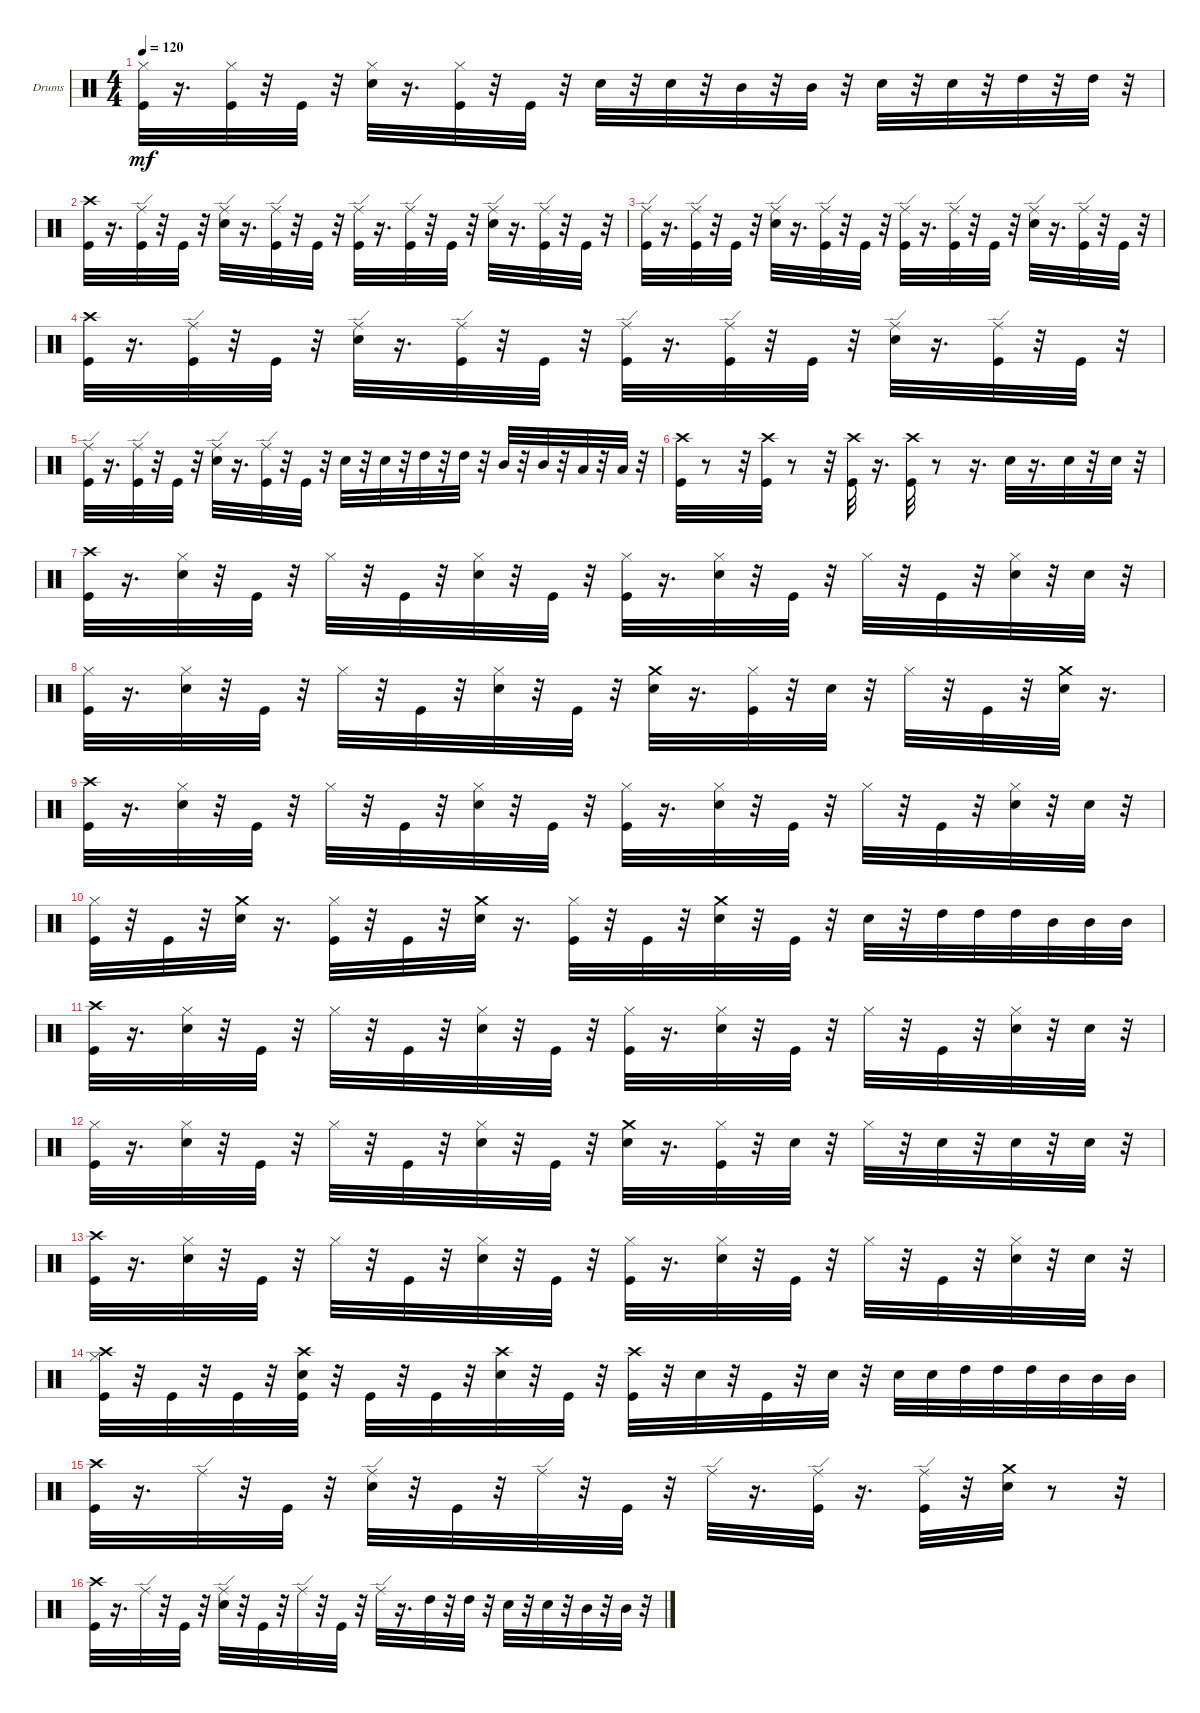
\bracketExtendMode groupsimilarinstruments
\firstSystemTrackNameOrientation horizontal
\otherSystemsTrackNameOrientation horizontal
\track ("" "Drums") {instrument percussion}
\staff {score}
\articulation defaults
\ts (4 4)
\tempo 120
\clef neutral
\ks c
("Hi-Hat (closed)" "Kick (hit)").32{dy mf} r.16{d} ("Hi-Hat (closed)" "Kick (hit)").32 r.32 "Kick (hit)".32 r.32 ("Hi-Hat (closed)" "Snare (hit) 2").32 r.16{d} ("Hi-Hat (closed)" "Kick (hit)").32 r.32 "Kick (hit)".32 r.32 "Snare (hit) 2".32 r.32 "Snare (hit) 2".32 r.32 "Mid Tom (hit)".32 r.32 "Mid Tom (hit)".32 r.32 "Snare (hit) 2".32 r.32 "Snare (hit) 2".32 r.32 "High Tom (hit)".32 r.32 "High Tom (hit)".32 r.32 |
("Crash high (hit)" "Kick (hit)").32 r.16{d} ("Ride (edge)" "Kick (hit)").32 r.32 "Kick (hit)".32 r.32 ("Ride (edge)" "Snare (hit) 2").32 r.16{d} ("Ride (edge)" "Kick (hit)").32 r.32 "Kick (hit)".32 r.32 ("Ride (edge)" "Kick (hit)").32 r.16{d} ("Ride (edge)" "Kick (hit)").32 r.32 "Kick (hit)".32 r.32 ("Ride (edge)" "Snare (hit) 2").32 r.16{d} ("Ride (edge)" "Kick (hit)").32 r.32 "Kick (hit)".32 r.32 |
("Ride (edge)" "Kick (hit)").32 r.16{d} ("Ride (edge)" "Kick (hit)").32 r.32 "Kick (hit)".32 r.32 ("Ride (edge)" "Snare (hit) 2").32 r.16{d} ("Ride (edge)" "Kick (hit)").32 r.32 "Kick (hit)".32 r.32 ("Ride (edge)" "Kick (hit)").32 r.16{d} ("Ride (edge)" "Kick (hit)").32 r.32 "Kick (hit)".32 r.32 ("Ride (edge)" "Snare (hit) 2").32 r.16{d} ("Ride (edge)" "Kick (hit)").32 r.32 "Kick (hit)".32 r.32 |
("Crash high (hit)" "Kick (hit)").32 r.16{d} ("Ride (edge)" "Kick (hit)").32 r.32 "Kick (hit)".32 r.32 ("Ride (edge)" "Snare (hit) 2").32 r.16{d} ("Ride (edge)" "Kick (hit)").32 r.32 "Kick (hit)".32 r.32 ("Ride (edge)" "Kick (hit)").32 r.16{d} ("Ride (edge)" "Kick (hit)").32 r.32 "Kick (hit)".32 r.32 ("Ride (edge)" "Snare (hit) 2").32 r.16{d} ("Ride (edge)" "Kick (hit)").32 r.32 "Kick (hit)".32 r.32 |
("Ride (edge)" "Kick (hit)").32 r.16{d} ("Ride (edge)" "Kick (hit)").32 r.32 "Kick (hit)".32 r.32 ("Ride (edge)" "Snare (hit) 2").32 r.16{d} ("Ride (edge)" "Kick (hit)").32 r.32 "Kick (hit)".32 r.32 "Snare (hit) 2".32 r.32 "Snare (hit) 2".32 r.32 "High Tom (hit)".32 r.32 "High Tom (hit)".32 r.32 "Mid Tom (hit)".32 r.32 "Mid Tom (hit)".32 r.32 "Low Tom (hit)".32 r.32 "Low Tom (hit)".32 r.32 |
("Crash high (hit)" "Kick (hit)").32 r.8 r.32 ("Crash high (hit)" "Kick (hit)").32 r.8 r.32 ("Crash high (hit)" "Kick (hit)").32 r.16{d} ("Crash high (hit)" "Kick (hit)").32 r.8 r.16{d} "Snare (hit) 2".32 r.16{d} "Snare (hit) 2".32 r.32 "Snare (hit) 2".32 r.32 |
("Crash high (hit)" "Kick (hit)").32 r.16{d} ("Snare (hit) 2" "Hi-Hat (closed)").32 r.32 "Kick (hit)".32 r.32 "Hi-Hat (closed)".32 r.32 "Kick (hit)".32 r.32 ("Snare (hit) 2" "Hi-Hat (closed)").32 r.32 "Kick (hit)".32 r.32 ("Kick (hit)" "Hi-Hat (closed)").32 r.16{d} ("Snare (hit) 2" "Hi-Hat (closed)").32 r.32 "Kick (hit)".32 r.32 "Hi-Hat (closed)".32 r.32 "Kick (hit)".32 r.32 ("Snare (hit) 2" "Hi-Hat (closed)").32 r.32 "Snare (hit) 2".32 r.32 |
("Hi-Hat (closed)" "Kick (hit)").32 r.16{d} ("Snare (hit) 2" "Hi-Hat (closed)").32 r.32 "Kick (hit)".32 r.32 "Hi-Hat (closed)".32 r.32 "Kick (hit)".32 r.32 ("Snare (hit) 2" "Hi-Hat (closed)").32 r.32 "Kick (hit)".32 r.32 ("Crash medium (hit)" "Snare (hit) 2").32 r.16{d} ("Kick (hit)" "Hi-Hat (closed)").32 r.32 "Snare (hit) 2".32 r.32 "Hi-Hat (closed)".32 r.32 "Kick (hit)".32 r.32 ("Crash medium (hit)" "Snare (hit) 2").32 r.16{d} |
("Crash high (hit)" "Kick (hit)").32 r.16{d} ("Snare (hit) 2" "Hi-Hat (closed)").32 r.32 "Kick (hit)".32 r.32 "Hi-Hat (closed)".32 r.32 "Kick (hit)".32 r.32 ("Snare (hit) 2" "Hi-Hat (closed)").32 r.32 "Kick (hit)".32 r.32 ("Kick (hit)" "Hi-Hat (closed)").32 r.16{d} ("Snare (hit) 2" "Hi-Hat (closed)").32 r.32 "Kick (hit)".32 r.32 "Hi-Hat (closed)".32 r.32 "Kick (hit)".32 r.32 ("Snare (hit) 2" "Hi-Hat (closed)").32 r.32 "Snare (hit) 2".32 r.32 |
("Hi-Hat (closed)" "Kick (hit)").32 r.32 "Kick (hit)".32 r.32 ("Crash medium (hit)" "Snare (hit) 2").32 r.16{d} ("Hi-Hat (closed)" "Kick (hit)").32 r.32 "Kick (hit)".32 r.32 ("Crash medium (hit)" "Snare (hit) 2").32 r.16{d} ("Hi-Hat (closed)" "Kick (hit)").32 r.32 "Kick (hit)".32 r.32 ("Crash medium (hit)" "Snare (hit) 2").32 r.32 "Kick (hit)".32 r.32 "Snare (hit) 2".32 r.32 "High Tom (hit)".32 "High Tom (hit)".32 "High Tom (hit)".32 "Mid Tom (hit)".32 "Mid Tom (hit)".32 "Mid Tom (hit)".32 |
("Crash high (hit)" "Kick (hit)").32 r.16{d} ("Snare (hit) 2" "Hi-Hat (closed)").32 r.32 "Kick (hit)".32 r.32 "Hi-Hat (closed)".32 r.32 "Kick (hit)".32 r.32 ("Snare (hit) 2" "Hi-Hat (closed)").32 r.32 "Kick (hit)".32 r.32 ("Kick (hit)" "Hi-Hat (closed)").32 r.16{d} ("Snare (hit) 2" "Hi-Hat (closed)").32 r.32 "Kick (hit)".32 r.32 "Hi-Hat (closed)".32 r.32 "Kick (hit)".32 r.32 ("Snare (hit) 2" "Hi-Hat (closed)").32 r.32 "Snare (hit) 2".32 r.32 |
("Hi-Hat (closed)" "Kick (hit)").32 r.16{d} ("Snare (hit) 2" "Hi-Hat (closed)").32 r.32 "Kick (hit)".32 r.32 "Hi-Hat (closed)".32 r.32 "Kick (hit)".32 r.32 ("Snare (hit) 2" "Hi-Hat (closed)").32 r.32 "Kick (hit)".32 r.32 ("Crash medium (hit)" "Snare (hit) 2").32 r.16{d} ("Kick (hit)" "Hi-Hat (closed)").32 r.32 "Snare (hit) 2".32 r.32 "Hi-Hat (closed)".32 r.32 "Snare (hit) 2".32 r.32 "Snare (hit) 2".32 r.32 "Snare (hit) 2".32 r.32 |
("Crash high (hit)" "Kick (hit)").32 r.16{d} ("Snare (hit) 2" "Hi-Hat (closed)").32 r.32 "Kick (hit)".32 r.32 "Hi-Hat (closed)".32 r.32 "Kick (hit)".32 r.32 ("Snare (hit) 2" "Hi-Hat (closed)").32 r.32 "Kick (hit)".32 r.32 ("Kick (hit)" "Hi-Hat (closed)").32 r.16{d} ("Snare (hit) 2" "Hi-Hat (closed)").32 r.32 "Kick (hit)".32 r.32 "Hi-Hat (closed)".32 r.32 "Kick (hit)".32 r.32 ("Snare (hit) 2" "Hi-Hat (closed)").32 r.32 "Snare (hit) 2".32 r.32 |
("Crash high (hit)" "Hi-Hat (closed)" "Kick (hit)").32 r.32 "Kick (hit)".32 r.32 "Kick (hit)".32 r.32 ("Kick (hit)" "Crash high (hit)" "Snare (hit) 2").32 r.32 "Kick (hit)".32 r.32 "Kick (hit)".32 r.32 ("Snare (hit) 2" "Crash high (hit)").32 r.32 "Kick (hit)".32 r.32 ("Crash high (hit)" "Kick (hit)").32 r.32 "Snare (hit) 2".32 r.32 "Kick (hit)".32 r.32 "Snare (hit) 2".32 r.32 "Snare (hit) 2".32 "Snare (hit) 2".32 "High Tom (hit)".32 "High Tom (hit)".32 "High Tom (hit)".32 "Mid Tom (hit)".32 "Mid Tom (hit)".32 "Mid Tom (hit)".32 |
("Crash high (hit)" "Kick (hit)").32 r.16{d} "Ride (edge)".32 r.32 "Kick (hit)".32 r.32 ("Ride (edge)" "Snare (hit) 2").32 r.32 "Kick (hit)".32 r.32 "Ride (edge)".32 r.32 "Kick (hit)".32 r.32 "Ride (edge)".32 r.16{d} ("Ride (edge)" "Kick (hit)").32 r.16{d} ("Ride (edge)" "Kick (hit)").32 r.32 ("Crash medium (hit)" "Snare (hit) 2").32 r.8 r.32 |
("Crash high (hit)" "Kick (hit)").32 r.16{d} "Ride (edge)".32 r.32 "Kick (hit)".32 r.32 ("Ride (edge)" "Snare (hit) 2").32 r.32 "Kick (hit)".32 r.32 "Ride (edge)".32 r.32 "Kick (hit)".32 r.32 "Ride (edge)".32 r.16{d} "High Tom (hit)".32 r.32 "High Tom (hit)".32 r.32 "Snare (hit) 2".32 r.32 "Snare (hit) 2".32 r.32 "Mid Tom (hit)".32 r.32 "Mid Tom (hit)".32 r.32
